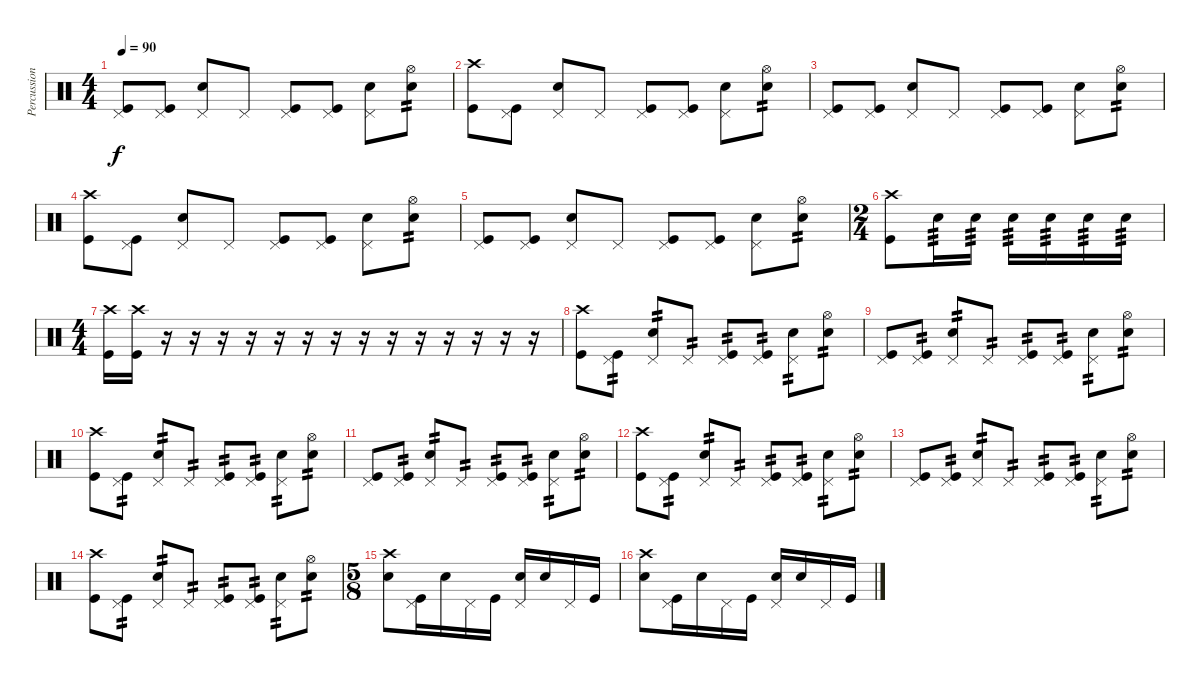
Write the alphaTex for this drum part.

\track ("Percussions" "Percussion") {instrument percussion}
\staff {score}
\articulation defaults
\ts (4 4)
\tempo 90
\clef neutral
\ks c
("Pedal Hi-Hat (hit)" "Kick (hit)").8{dy f} ("Pedal Hi-Hat (hit)" "Kick (hit)").8 ("Pedal Hi-Hat (hit)" "Snare (hit) 2").8 "Pedal Hi-Hat (hit)".8 ("Pedal Hi-Hat (hit)" "Kick (hit)").8 ("Pedal Hi-Hat (hit)" "Kick (hit)").8 ("Pedal Hi-Hat (hit)" "Snare (hit) 2").8 ("Hi-Hat (open)" "Snare (hit) 2").8{tp 2} |
("Crash high (hit)" "Kick (hit)").8 ("Pedal Hi-Hat (hit)" "Kick (hit)").8 ("Pedal Hi-Hat (hit)" "Snare (hit) 2").8 "Pedal Hi-Hat (hit)".8 ("Pedal Hi-Hat (hit)" "Kick (hit)").8 ("Pedal Hi-Hat (hit)" "Kick (hit)").8 ("Pedal Hi-Hat (hit)" "Snare (hit) 2").8 ("Hi-Hat (open)" "Snare (hit) 2").8{tp 2} |
("Pedal Hi-Hat (hit)" "Kick (hit)").8 ("Pedal Hi-Hat (hit)" "Kick (hit)").8 ("Pedal Hi-Hat (hit)" "Snare (hit) 2").8 "Pedal Hi-Hat (hit)".8 ("Pedal Hi-Hat (hit)" "Kick (hit)").8 ("Pedal Hi-Hat (hit)" "Kick (hit)").8 ("Pedal Hi-Hat (hit)" "Snare (hit) 2").8 ("Hi-Hat (open)" "Snare (hit) 2").8{tp 2} |
("Crash high (hit)" "Kick (hit)").8 ("Pedal Hi-Hat (hit)" "Kick (hit)").8 ("Pedal Hi-Hat (hit)" "Snare (hit) 2").8 "Pedal Hi-Hat (hit)".8 ("Pedal Hi-Hat (hit)" "Kick (hit)").8 ("Pedal Hi-Hat (hit)" "Kick (hit)").8 ("Pedal Hi-Hat (hit)" "Snare (hit) 2").8 ("Hi-Hat (open)" "Snare (hit) 2").8{tp 2} |
("Pedal Hi-Hat (hit)" "Kick (hit)").8 ("Pedal Hi-Hat (hit)" "Kick (hit)").8 ("Pedal Hi-Hat (hit)" "Snare (hit) 2").8 "Pedal Hi-Hat (hit)".8 ("Pedal Hi-Hat (hit)" "Kick (hit)").8 ("Pedal Hi-Hat (hit)" "Kick (hit)").8 ("Pedal Hi-Hat (hit)" "Snare (hit) 2").8 ("Hi-Hat (open)" "Snare (hit) 2").8{tp 2} |
\ts (2 4)
("Crash high (hit)" "Kick (hit)").8 "Snare (hit) 2".16{tp 3} "Snare (hit) 2".16{tp 3} "Snare (hit) 2".16{tp 3} "Snare (hit) 2".16{tp 3} "Snare (hit) 2".16{tp 3} "Snare (hit) 2".16{tp 3} |
\ts (4 4)
("Crash high (hit)" "Kick (hit)").16 ("Crash high (hit)" "Kick (hit)").16 r.16 r.16 r.16 r.16 r.16 r.16 r.16 r.16 r.16 r.16 r.16 r.16 r.16 r.16 |
("Crash high (hit)" "Kick (hit)").8 ("Pedal Hi-Hat (hit)" "Kick (hit)").8{tp 2} ("Pedal Hi-Hat (hit)" "Snare (hit) 2").8{tp 2} "Pedal Hi-Hat (hit)".8{tp 2} ("Pedal Hi-Hat (hit)" "Kick (hit)").8{tp 2} ("Pedal Hi-Hat (hit)" "Kick (hit)").8{tp 2} ("Pedal Hi-Hat (hit)" "Snare (hit) 2").8{tp 2} ("Hi-Hat (open)" "Snare (hit) 2").8{tp 2} |
("Pedal Hi-Hat (hit)" "Kick (hit)").8 ("Pedal Hi-Hat (hit)" "Kick (hit)").8{tp 2} ("Pedal Hi-Hat (hit)" "Snare (hit) 2").8{tp 2} "Pedal Hi-Hat (hit)".8{tp 2} ("Pedal Hi-Hat (hit)" "Kick (hit)").8{tp 2} ("Pedal Hi-Hat (hit)" "Kick (hit)").8{tp 2} ("Pedal Hi-Hat (hit)" "Snare (hit) 2").8{tp 2} ("Hi-Hat (open)" "Snare (hit) 2").8{tp 2} |
("Crash high (hit)" "Kick (hit)").8 ("Pedal Hi-Hat (hit)" "Kick (hit)").8{tp 2} ("Pedal Hi-Hat (hit)" "Snare (hit) 2").8{tp 2} "Pedal Hi-Hat (hit)".8{tp 2} ("Pedal Hi-Hat (hit)" "Kick (hit)").8{tp 2} ("Pedal Hi-Hat (hit)" "Kick (hit)").8{tp 2} ("Pedal Hi-Hat (hit)" "Snare (hit) 2").8{tp 2} ("Hi-Hat (open)" "Snare (hit) 2").8{tp 2} |
("Pedal Hi-Hat (hit)" "Kick (hit)").8 ("Pedal Hi-Hat (hit)" "Kick (hit)").8{tp 2} ("Pedal Hi-Hat (hit)" "Snare (hit) 2").8{tp 2} "Pedal Hi-Hat (hit)".8{tp 2} ("Pedal Hi-Hat (hit)" "Kick (hit)").8{tp 2} ("Pedal Hi-Hat (hit)" "Kick (hit)").8{tp 2} ("Pedal Hi-Hat (hit)" "Snare (hit) 2").8{tp 2} ("Hi-Hat (open)" "Snare (hit) 2").8{tp 2} |
("Crash high (hit)" "Kick (hit)").8 ("Pedal Hi-Hat (hit)" "Kick (hit)").8{tp 2} ("Pedal Hi-Hat (hit)" "Snare (hit) 2").8{tp 2} "Pedal Hi-Hat (hit)".8{tp 2} ("Pedal Hi-Hat (hit)" "Kick (hit)").8{tp 2} ("Pedal Hi-Hat (hit)" "Kick (hit)").8{tp 2} ("Pedal Hi-Hat (hit)" "Snare (hit) 2").8{tp 2} ("Hi-Hat (open)" "Snare (hit) 2").8{tp 2} |
("Pedal Hi-Hat (hit)" "Kick (hit)").8 ("Pedal Hi-Hat (hit)" "Kick (hit)").8{tp 2} ("Pedal Hi-Hat (hit)" "Snare (hit) 2").8{tp 2} "Pedal Hi-Hat (hit)".8{tp 2} ("Pedal Hi-Hat (hit)" "Kick (hit)").8{tp 2} ("Pedal Hi-Hat (hit)" "Kick (hit)").8{tp 2} ("Pedal Hi-Hat (hit)" "Snare (hit) 2").8{tp 2} ("Hi-Hat (open)" "Snare (hit) 2").8{tp 2} |
("Crash high (hit)" "Kick (hit)").8 ("Pedal Hi-Hat (hit)" "Kick (hit)").8{tp 2} ("Pedal Hi-Hat (hit)" "Snare (hit) 2").8{tp 2} "Pedal Hi-Hat (hit)".8{tp 2} ("Pedal Hi-Hat (hit)" "Kick (hit)").8{tp 2} ("Pedal Hi-Hat (hit)" "Kick (hit)").8{tp 2} ("Pedal Hi-Hat (hit)" "Snare (hit) 2").8{tp 2} ("Hi-Hat (open)" "Snare (hit) 2").8{tp 2} |
\ts (5 8)
("Crash high (hit)" "Snare (hit) 2").8 ("Pedal Hi-Hat (hit)" "Kick (hit)").16 "Snare (hit) 2".16 "Pedal Hi-Hat (hit)".16 "Kick (hit)".16 ("Pedal Hi-Hat (hit)" "Snare (hit) 2").16 "Snare (hit) 2".16 "Pedal Hi-Hat (hit)".16 "Kick (hit)".16 |
("Crash high (hit)" "Snare (hit) 2").8 ("Pedal Hi-Hat (hit)" "Kick (hit)").16 "Snare (hit) 2".16 "Pedal Hi-Hat (hit)".16 "Kick (hit)".16 ("Pedal Hi-Hat (hit)" "Snare (hit) 2").16 "Snare (hit) 2".16 "Pedal Hi-Hat (hit)".16 "Kick (hit)".16
